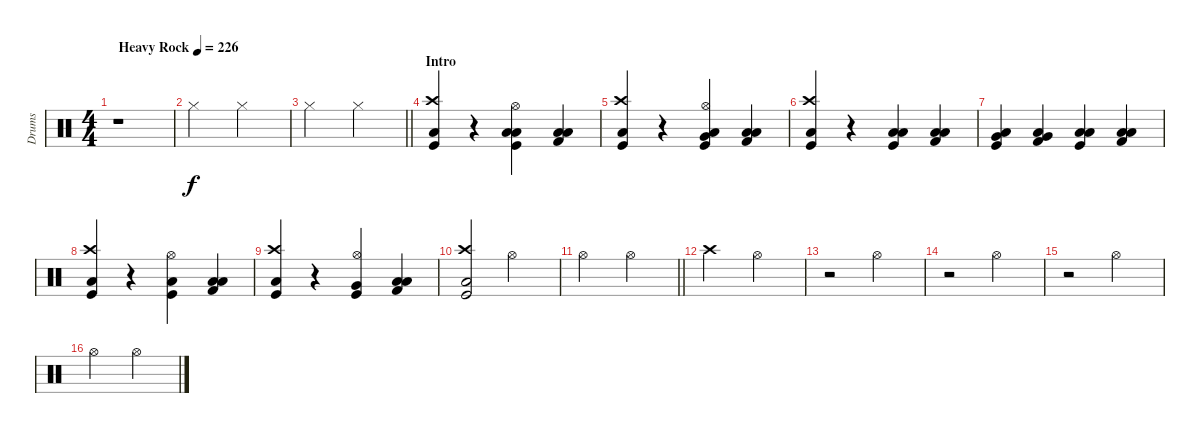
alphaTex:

\track ("Drums" "Drums") {instrument percussion}
\staff {score}
\articulation defaults
\ts (4 4)
\tempo (226 "Heavy Rock")
\clef neutral
\ks c
r.1{dy f} |
"Hi-Hat (closed)".2 "Hi-Hat (closed)".2 |
\barLineRight lightlight "Hi-Hat (closed)".2 "Hi-Hat (closed)".2
|
\section ("" "Intro")
("Kick (hit)" "Crash high (hit)" "Low Floor Tom (hit)").4 r.4 ("Kick (hit)" "Hi-Hat (open)" "Low Floor Tom (hit)" "Low Floor Tom (hit)").4 ("Kick (hit) 2" "Low Floor Tom (hit)" "Low Tom (hit)").4 |
("Kick (hit)" "Crash high (hit)" "Low Floor Tom (hit)").4 r.4 ("Kick (hit)" "Hi-Hat (open)" "Low Floor Tom (hit)" "Very Low Tom (hit)").4 ("Kick (hit) 2" "Low Floor Tom (hit)" "Low Tom (hit)").4 |
("Kick (hit)" "Crash high (hit)" "Low Floor Tom (hit)").4 r.4 ("Kick (hit)" "Low Floor Tom (hit)" "Low Floor Tom (hit)").4 ("Kick (hit) 2" "Low Floor Tom (hit)" "Low Floor Tom (hit)").4 |
("Kick (hit)" "Low Floor Tom (hit)" "Very Low Tom (hit)").4 ("Kick (hit) 2" "Low Floor Tom (hit)" "Very Low Tom (hit)").4 ("Kick (hit)" "Low Floor Tom (hit)" "Low Tom (hit)").4 ("Kick (hit) 2" "Low Floor Tom (hit)" "Low Tom (hit)").4 |
("Kick (hit)" "Crash high (hit)" "Low Floor Tom (hit)").4 r.4 ("Kick (hit)" "Hi-Hat (open)" "Low Floor Tom (hit)").4 ("Kick (hit) 2" "Low Floor Tom (hit)" "Low Tom (hit)").4 |
("Kick (hit)" "Crash high (hit)" "Low Floor Tom (hit)").4 r.4 ("Kick (hit)" "Hi-Hat (open)" "Very Low Tom (hit)").4 ("Kick (hit) 2" "Low Floor Tom (hit)" "Low Tom (hit)").4 |
("Kick (hit)" "Crash high (hit)" "Low Floor Tom (hit)").2 "Hi-Hat (open)".2 |
\barLineRight lightlight "Hi-Hat (open)".2 "Hi-Hat (open)".2
|
"Crash high (hit)".2 "Hi-Hat (open)".2 |
r.2 "Hi-Hat (open)".2 |
r.2 "Hi-Hat (open)".2 |
r.2 "Hi-Hat (open)".2 |
"Hi-Hat (open)".2 "Hi-Hat (open)".2
